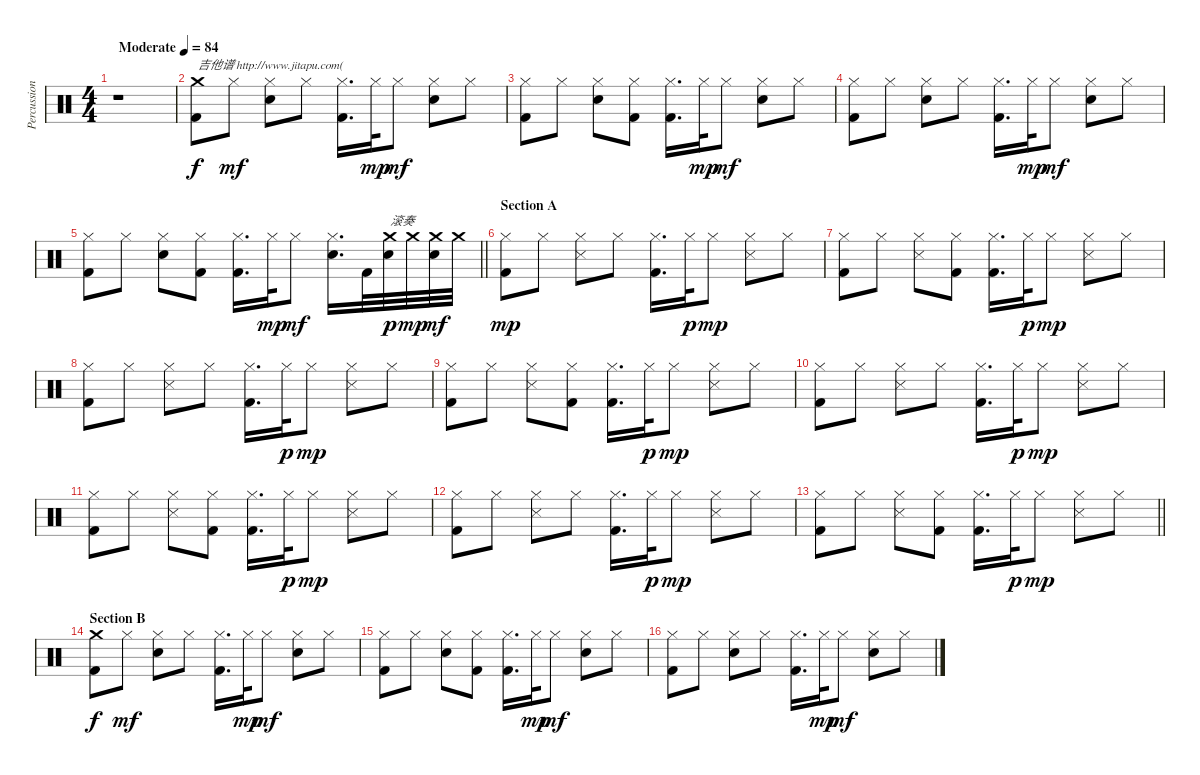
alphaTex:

\track ("Percussion" "Percussion") {instrument percussion}
\staff {score}
\articulation defaults
\ts (4 4)
\tempo (84 "Moderate")
\clef neutral
\ks c
r.1{dy f} |
("Crash medium (hit)" "Kick (hit) 2").8{txt "吉他谱 http://www.jitapu.com("} "Hi-Hat (closed)".8{dy mf} ("Hi-Hat (closed)" "Electric Snare (hit)").8 "Hi-Hat (closed)".8 ("Hi-Hat (closed)" "Kick (hit) 2").16{d} "Hi-Hat (closed)".32{dy mp} "Hi-Hat (closed)".8{dy mf} ("Hi-Hat (closed)" "Electric Snare (hit)").8 "Hi-Hat (closed)".8 |
("Hi-Hat (closed)" "Kick (hit) 2").8 "Hi-Hat (closed)".8 ("Hi-Hat (closed)" "Electric Snare (hit)").8 ("Hi-Hat (closed)" "Kick (hit) 2").8 ("Hi-Hat (closed)" "Kick (hit) 2").16{d} "Hi-Hat (closed)".32{dy mp} "Hi-Hat (closed)".8{dy mf} ("Hi-Hat (closed)" "Electric Snare (hit)").8 "Hi-Hat (closed)".8 |
("Hi-Hat (closed)" "Kick (hit) 2").8 "Hi-Hat (closed)".8 ("Hi-Hat (closed)" "Electric Snare (hit)").8 "Hi-Hat (closed)".8 ("Hi-Hat (closed)" "Kick (hit) 2").16{d} "Hi-Hat (closed)".32{dy mp} "Hi-Hat (closed)".8{dy mf} ("Hi-Hat (closed)" "Electric Snare (hit)").8 "Hi-Hat (closed)".8 |
\barLineRight lightlight
("Hi-Hat (closed)" "Kick (hit) 2").8 "Hi-Hat (closed)".8 ("Hi-Hat (closed)" "Electric Snare (hit)").8 ("Hi-Hat (closed)" "Kick (hit) 2").8 ("Hi-Hat (closed)" "Kick (hit) 2").16{d} "Hi-Hat (closed)".32{dy mp} "Hi-Hat (closed)".8{dy mf} ("Hi-Hat (closed)" "Electric Snare (hit)").16{d} "Kick (hit) 2".32 ("Crash medium (hit)" "Electric Snare (hit)").32{txt "滚奏" dy p} "Crash medium (hit)".32{dy mp} ("Crash medium (hit)" "Electric Snare (hit)").32{dy mf} "Crash medium (hit)".32 |
\section ("" "Section A")
("Hi-Hat (closed)" "Kick (hit) 2").8{dy mp} "Hi-Hat (closed)".8 ("Hi-Hat (closed)" "Snare (side stick) 3").8 "Hi-Hat (closed)".8 ("Hi-Hat (closed)" "Kick (hit) 2").16{d} "Hi-Hat (closed)".32{dy p} "Hi-Hat (closed)".8{dy mp} ("Hi-Hat (closed)" "Snare (side stick) 3").8 "Hi-Hat (closed)".8 |
("Hi-Hat (closed)" "Kick (hit) 2").8 "Hi-Hat (closed)".8 ("Hi-Hat (closed)" "Snare (side stick) 3").8 ("Hi-Hat (closed)" "Kick (hit) 2").8 ("Hi-Hat (closed)" "Kick (hit) 2").16{d} "Hi-Hat (closed)".32{dy p} "Hi-Hat (closed)".8{dy mp} ("Hi-Hat (closed)" "Snare (side stick) 3").8 "Hi-Hat (closed)".8 |
("Hi-Hat (closed)" "Kick (hit) 2").8 "Hi-Hat (closed)".8 ("Hi-Hat (closed)" "Snare (side stick) 3").8 "Hi-Hat (closed)".8 ("Hi-Hat (closed)" "Kick (hit) 2").16{d} "Hi-Hat (closed)".32{dy p} "Hi-Hat (closed)".8{dy mp} ("Hi-Hat (closed)" "Snare (side stick) 3").8 "Hi-Hat (closed)".8 |
("Hi-Hat (closed)" "Kick (hit) 2").8 "Hi-Hat (closed)".8 ("Hi-Hat (closed)" "Snare (side stick) 3").8 ("Hi-Hat (closed)" "Kick (hit) 2").8 ("Hi-Hat (closed)" "Kick (hit) 2").16{d} "Hi-Hat (closed)".32{dy p} "Hi-Hat (closed)".8{dy mp} ("Hi-Hat (closed)" "Snare (side stick) 3").8 "Hi-Hat (closed)".8 |
("Hi-Hat (closed)" "Kick (hit) 2").8 "Hi-Hat (closed)".8 ("Hi-Hat (closed)" "Snare (side stick) 3").8 "Hi-Hat (closed)".8 ("Hi-Hat (closed)" "Kick (hit) 2").16{d} "Hi-Hat (closed)".32{dy p} "Hi-Hat (closed)".8{dy mp} ("Hi-Hat (closed)" "Snare (side stick) 3").8 "Hi-Hat (closed)".8 |
("Hi-Hat (closed)" "Kick (hit) 2").8 "Hi-Hat (closed)".8 ("Hi-Hat (closed)" "Snare (side stick) 3").8 ("Hi-Hat (closed)" "Kick (hit) 2").8 ("Hi-Hat (closed)" "Kick (hit) 2").16{d} "Hi-Hat (closed)".32{dy p} "Hi-Hat (closed)".8{dy mp} ("Hi-Hat (closed)" "Snare (side stick) 3").8 "Hi-Hat (closed)".8 |
("Hi-Hat (closed)" "Kick (hit) 2").8 "Hi-Hat (closed)".8 ("Hi-Hat (closed)" "Snare (side stick) 3").8 "Hi-Hat (closed)".8 ("Hi-Hat (closed)" "Kick (hit) 2").16{d} "Hi-Hat (closed)".32{dy p} "Hi-Hat (closed)".8{dy mp} ("Hi-Hat (closed)" "Snare (side stick) 3").8 "Hi-Hat (closed)".8 |
\barLineRight lightlight
("Hi-Hat (closed)" "Kick (hit) 2").8 "Hi-Hat (closed)".8 ("Hi-Hat (closed)" "Snare (side stick) 3").8 ("Hi-Hat (closed)" "Kick (hit) 2").8 ("Hi-Hat (closed)" "Kick (hit) 2").16{d} "Hi-Hat (closed)".32{dy p} "Hi-Hat (closed)".8{dy mp} ("Hi-Hat (closed)" "Snare (side stick) 3").8 "Hi-Hat (closed)".8 |
\section ("" "Section B")
("Crash medium (hit)" "Kick (hit) 2").8{dy f} "Hi-Hat (closed)".8{dy mf} ("Hi-Hat (closed)" "Electric Snare (hit)").8 "Hi-Hat (closed)".8 ("Hi-Hat (closed)" "Kick (hit) 2").16{d} "Hi-Hat (closed)".32{dy mp} "Hi-Hat (closed)".8{dy mf} ("Hi-Hat (closed)" "Electric Snare (hit)").8 "Hi-Hat (closed)".8 |
("Hi-Hat (closed)" "Kick (hit) 2").8 "Hi-Hat (closed)".8 ("Hi-Hat (closed)" "Electric Snare (hit)").8 ("Hi-Hat (closed)" "Kick (hit) 2").8 ("Hi-Hat (closed)" "Kick (hit) 2").16{d} "Hi-Hat (closed)".32{dy mp} "Hi-Hat (closed)".8{dy mf} ("Hi-Hat (closed)" "Electric Snare (hit)").8 "Hi-Hat (closed)".8 |
("Hi-Hat (closed)" "Kick (hit) 2").8 "Hi-Hat (closed)".8 ("Hi-Hat (closed)" "Electric Snare (hit)").8 "Hi-Hat (closed)".8 ("Hi-Hat (closed)" "Kick (hit) 2").16{d} "Hi-Hat (closed)".32{dy mp} "Hi-Hat (closed)".8{dy mf} ("Hi-Hat (closed)" "Electric Snare (hit)").8 "Hi-Hat (closed)".8
